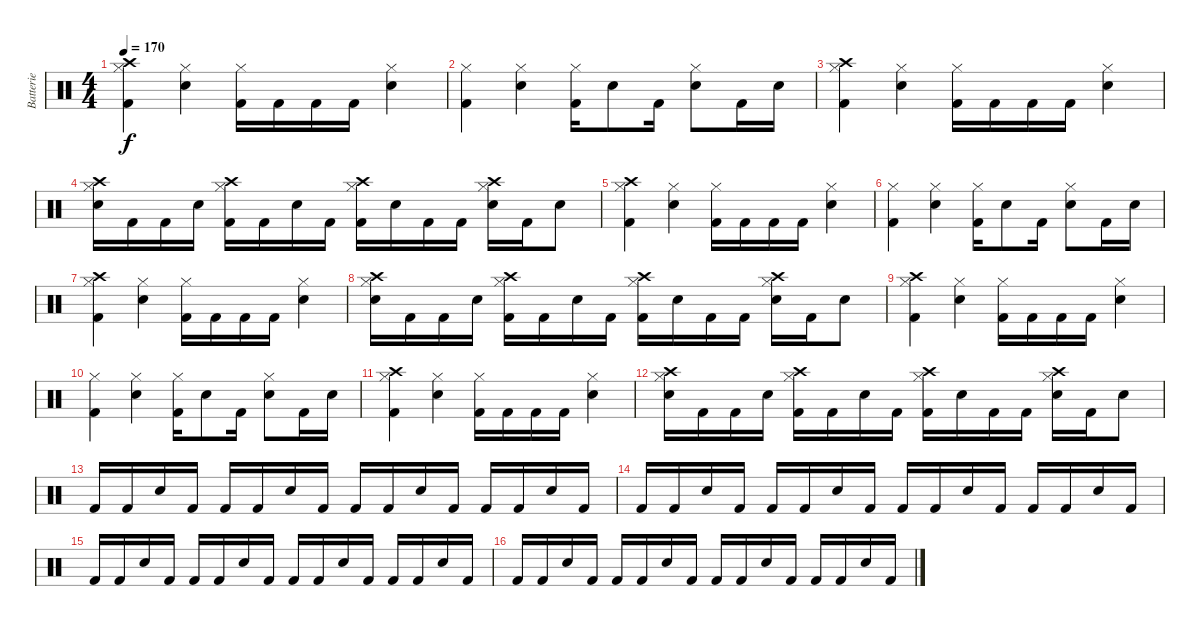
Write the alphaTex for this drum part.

\track ("Batterie" "Batterie") {instrument percussion}
\staff {score}
\articulation defaults
\ts (4 4)
\tempo 170
\clef neutral
\ks c
("Crash high (hit)" "Hi-Hat (closed)" "Kick (hit) 2").4{dy f} ("Hi-Hat (closed)" "Snare (hit) 2").4 ("Hi-Hat (closed)" "Kick (hit) 2").16 "Kick (hit) 2".16 "Kick (hit) 2".16 "Kick (hit) 2".16 ("Hi-Hat (closed)" "Snare (hit) 2").4 |
("Hi-Hat (closed)" "Kick (hit) 2").4 ("Hi-Hat (closed)" "Snare (hit) 2").4 ("Hi-Hat (closed)" "Kick (hit) 2").16 "Snare (hit) 2".8 "Kick (hit) 2".16 ("Hi-Hat (closed)" "Snare (hit) 2").8 "Kick (hit) 2".16 "Snare (hit) 2".16 |
("Crash high (hit)" "Hi-Hat (closed)" "Kick (hit) 2").4 ("Hi-Hat (closed)" "Snare (hit) 2").4 ("Hi-Hat (closed)" "Kick (hit) 2").16 "Kick (hit) 2".16 "Kick (hit) 2".16 "Kick (hit) 2".16 ("Hi-Hat (closed)" "Snare (hit) 2").4 |
("Crash high (hit)" "Hi-Hat (closed)" "Snare (hit) 2").16 "Kick (hit) 2".16 "Kick (hit) 2".16 "Snare (hit) 2".16 ("Crash high (hit)" "Hi-Hat (closed)" "Kick (hit) 2").16 "Kick (hit) 2".16 "Snare (hit) 2".16 "Kick (hit) 2".16 ("Crash high (hit)" "Hi-Hat (closed)" "Kick (hit) 2").16 "Snare (hit) 2".16 "Kick (hit) 2".16 "Kick (hit) 2".16 ("Crash high (hit)" "Hi-Hat (closed)" "Snare (hit) 2").16 "Kick (hit) 2".16 "Snare (hit) 2".8 |
("Crash high (hit)" "Hi-Hat (closed)" "Kick (hit) 2").4 ("Hi-Hat (closed)" "Snare (hit) 2").4 ("Hi-Hat (closed)" "Kick (hit) 2").16 "Kick (hit) 2".16 "Kick (hit) 2".16 "Kick (hit) 2".16 ("Hi-Hat (closed)" "Snare (hit) 2").4 |
("Hi-Hat (closed)" "Kick (hit) 2").4 ("Hi-Hat (closed)" "Snare (hit) 2").4 ("Hi-Hat (closed)" "Kick (hit) 2").16 "Snare (hit) 2".8 "Kick (hit) 2".16 ("Hi-Hat (closed)" "Snare (hit) 2").8 "Kick (hit) 2".16 "Snare (hit) 2".16 |
("Crash high (hit)" "Hi-Hat (closed)" "Kick (hit) 2").4 ("Hi-Hat (closed)" "Snare (hit) 2").4 ("Hi-Hat (closed)" "Kick (hit) 2").16 "Kick (hit) 2".16 "Kick (hit) 2".16 "Kick (hit) 2".16 ("Hi-Hat (closed)" "Snare (hit) 2").4 |
("Crash high (hit)" "Hi-Hat (closed)" "Snare (hit) 2").16 "Kick (hit) 2".16 "Kick (hit) 2".16 "Snare (hit) 2".16 ("Crash high (hit)" "Hi-Hat (closed)" "Kick (hit) 2").16 "Kick (hit) 2".16 "Snare (hit) 2".16 "Kick (hit) 2".16 ("Crash high (hit)" "Hi-Hat (closed)" "Kick (hit) 2").16 "Snare (hit) 2".16 "Kick (hit) 2".16 "Kick (hit) 2".16 ("Crash high (hit)" "Hi-Hat (closed)" "Snare (hit) 2").16 "Kick (hit) 2".16 "Snare (hit) 2".8 |
("Crash high (hit)" "Hi-Hat (closed)" "Kick (hit) 2").4 ("Hi-Hat (closed)" "Snare (hit) 2").4 ("Hi-Hat (closed)" "Kick (hit) 2").16 "Kick (hit) 2".16 "Kick (hit) 2".16 "Kick (hit) 2".16 ("Hi-Hat (closed)" "Snare (hit) 2").4 |
("Hi-Hat (closed)" "Kick (hit) 2").4 ("Hi-Hat (closed)" "Snare (hit) 2").4 ("Hi-Hat (closed)" "Kick (hit) 2").16 "Snare (hit) 2".8 "Kick (hit) 2".16 ("Hi-Hat (closed)" "Snare (hit) 2").8 "Kick (hit) 2".16 "Snare (hit) 2".16 |
("Crash high (hit)" "Hi-Hat (closed)" "Kick (hit) 2").4 ("Hi-Hat (closed)" "Snare (hit) 2").4 ("Hi-Hat (closed)" "Kick (hit) 2").16 "Kick (hit) 2".16 "Kick (hit) 2".16 "Kick (hit) 2".16 ("Hi-Hat (closed)" "Snare (hit) 2").4 |
("Crash high (hit)" "Hi-Hat (closed)" "Snare (hit) 2").16 "Kick (hit) 2".16 "Kick (hit) 2".16 "Snare (hit) 2".16 ("Crash high (hit)" "Hi-Hat (closed)" "Kick (hit) 2").16 "Kick (hit) 2".16 "Snare (hit) 2".16 "Kick (hit) 2".16 ("Crash high (hit)" "Hi-Hat (closed)" "Kick (hit) 2").16 "Snare (hit) 2".16 "Kick (hit) 2".16 "Kick (hit) 2".16 ("Crash high (hit)" "Hi-Hat (closed)" "Snare (hit) 2").16 "Kick (hit) 2".16 "Snare (hit) 2".8 |
"Kick (hit) 2".16 "Kick (hit) 2".16 "Snare (hit) 2".16 "Kick (hit) 2".16 "Kick (hit) 2".16 "Kick (hit) 2".16 "Snare (hit) 2".16 "Kick (hit) 2".16 "Kick (hit) 2".16 "Kick (hit) 2".16 "Snare (hit) 2".16 "Kick (hit) 2".16 "Kick (hit) 2".16 "Kick (hit) 2".16 "Snare (hit) 2".16 "Kick (hit) 2".16 |
"Kick (hit) 2".16 "Kick (hit) 2".16 "Snare (hit) 2".16 "Kick (hit) 2".16 "Kick (hit) 2".16 "Kick (hit) 2".16 "Snare (hit) 2".16 "Kick (hit) 2".16 "Kick (hit) 2".16 "Kick (hit) 2".16 "Snare (hit) 2".16 "Kick (hit) 2".16 "Kick (hit) 2".16 "Kick (hit) 2".16 "Snare (hit) 2".16 "Kick (hit) 2".16 |
"Kick (hit) 2".16 "Kick (hit) 2".16 "Snare (hit) 2".16 "Kick (hit) 2".16 "Kick (hit) 2".16 "Kick (hit) 2".16 "Snare (hit) 2".16 "Kick (hit) 2".16 "Kick (hit) 2".16 "Kick (hit) 2".16 "Snare (hit) 2".16 "Kick (hit) 2".16 "Kick (hit) 2".16 "Kick (hit) 2".16 "Snare (hit) 2".16 "Kick (hit) 2".16 |
"Kick (hit) 2".16 "Kick (hit) 2".16 "Snare (hit) 2".16 "Kick (hit) 2".16 "Kick (hit) 2".16 "Kick (hit) 2".16 "Snare (hit) 2".16 "Kick (hit) 2".16 "Kick (hit) 2".16 "Kick (hit) 2".16 "Snare (hit) 2".16 "Kick (hit) 2".16 "Kick (hit) 2".16 "Kick (hit) 2".16 "Snare (hit) 2".16 "Kick (hit) 2".16
